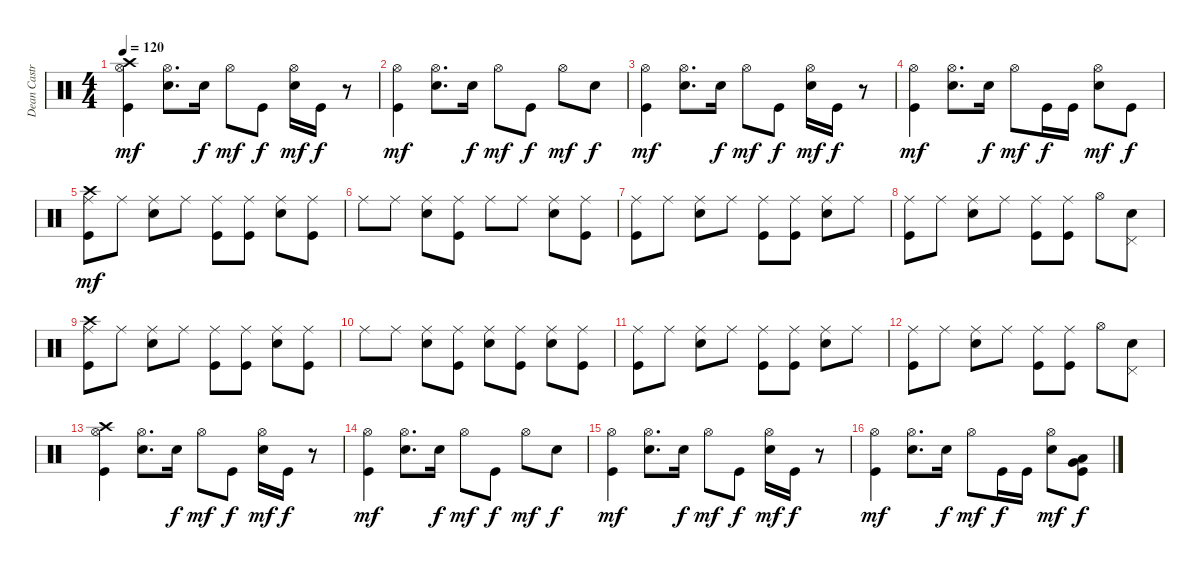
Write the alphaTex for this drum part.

\track ("Dean Castronova" "Dean Castr") {instrument percussion}
\staff {score}
\articulation defaults
\ts (4 4)
\tempo 120
\clef neutral
\ks c
("Crash high (hit)" "Hi-Hat (open)" "Kick (hit)").4{dy mf} ("Hi-Hat (open)" "Electric Snare (hit)").8{d} "Electric Snare (hit)".16{dy f} "Hi-Hat (open)".8{dy mf} "Kick (hit)".8{dy f} ("Hi-Hat (open)" "Electric Snare (hit)").16{dy mf} "Kick (hit)".16{dy f} r.8 |
("Hi-Hat (open)" "Kick (hit)").4{dy mf} ("Hi-Hat (open)" "Electric Snare (hit)").8{d} "Electric Snare (hit)".16{dy f} "Hi-Hat (open)".8{dy mf} "Kick (hit)".8{dy f} "Hi-Hat (open)".8{dy mf} "Electric Snare (hit)".8{dy f} |
("Hi-Hat (open)" "Kick (hit)").4{dy mf} ("Hi-Hat (open)" "Electric Snare (hit)").8{d} "Electric Snare (hit)".16{dy f} "Hi-Hat (open)".8{dy mf} "Kick (hit)".8{dy f} ("Hi-Hat (open)" "Electric Snare (hit)").16{dy mf} "Kick (hit)".16{dy f} r.8 |
("Hi-Hat (open)" "Kick (hit)").4{dy mf} ("Hi-Hat (open)" "Electric Snare (hit)").8{d} "Electric Snare (hit)".16{dy f} "Hi-Hat (open)".8{dy mf} "Kick (hit)".16{dy f} "Kick (hit)".16 ("Hi-Hat (open)" "Electric Snare (hit)").8{dy mf} "Kick (hit)".8{dy f} |
("Crash high (hit)" "Ride (middle)" "Kick (hit)").8{dy mf} "Ride (middle)".8 ("Ride (middle)" "Electric Snare (hit)").8 "Ride (middle)".8 ("Ride (middle)" "Kick (hit)").8 ("Ride (middle)" "Kick (hit)").8 ("Ride (middle)" "Electric Snare (hit)").8 ("Ride (middle)" "Kick (hit)").8 |
"Ride (middle)".8 "Ride (middle)".8 ("Ride (middle)" "Electric Snare (hit)").8 ("Ride (middle)" "Kick (hit)").8 "Ride (middle)".8 "Ride (middle)".8 ("Ride (middle)" "Electric Snare (hit)").8 ("Ride (middle)" "Kick (hit)").8 |
("Ride (middle)" "Kick (hit)").8 "Ride (middle)".8 ("Ride (middle)" "Electric Snare (hit)").8 "Ride (middle)".8 ("Ride (middle)" "Kick (hit)").8 ("Ride (middle)" "Kick (hit)").8 ("Ride (middle)" "Electric Snare (hit)").8 "Ride (middle)".8 |
("Ride (middle)" "Kick (hit)").8 "Ride (middle)".8 ("Ride (middle)" "Electric Snare (hit)").8 "Ride (middle)".8 ("Ride (middle)" "Kick (hit)").8 ("Ride (middle)" "Kick (hit)").8 "Hi-Hat (open)".8 ("Pedal Hi-Hat (hit)" "Electric Snare (hit)").8 |
("Crash high (hit)" "Ride (middle)" "Kick (hit)").8 "Ride (middle)".8 ("Ride (middle)" "Electric Snare (hit)").8 "Ride (middle)".8 ("Ride (middle)" "Kick (hit)").8 ("Ride (middle)" "Kick (hit)").8 ("Ride (middle)" "Electric Snare (hit)").8 ("Ride (middle)" "Kick (hit)").8 |
"Ride (middle)".8 "Ride (middle)".8 ("Ride (middle)" "Electric Snare (hit)").8 ("Ride (middle)" "Kick (hit)").8 ("Ride (middle)" "Electric Snare (hit)").8 ("Ride (middle)" "Kick (hit)").8 ("Ride (middle)" "Electric Snare (hit)").8 ("Ride (middle)" "Kick (hit)").8 |
("Ride (middle)" "Kick (hit)").8 "Ride (middle)".8 ("Ride (middle)" "Electric Snare (hit)").8 "Ride (middle)".8 ("Ride (middle)" "Kick (hit)").8 ("Ride (middle)" "Kick (hit)").8 ("Ride (middle)" "Electric Snare (hit)").8 "Ride (middle)".8 |
("Ride (middle)" "Kick (hit)").8 "Ride (middle)".8 ("Ride (middle)" "Electric Snare (hit)").8 "Ride (middle)".8 ("Ride (middle)" "Kick (hit)").8 ("Ride (middle)" "Kick (hit)").8 "Hi-Hat (open)".8 ("Pedal Hi-Hat (hit)" "Electric Snare (hit)").8 |
("Crash high (hit)" "Hi-Hat (open)" "Kick (hit)").4 ("Hi-Hat (open)" "Electric Snare (hit)").8{d} "Electric Snare (hit)".16{dy f} "Hi-Hat (open)".8{dy mf} "Kick (hit)".8{dy f} ("Hi-Hat (open)" "Electric Snare (hit)").16{dy mf} "Kick (hit)".16{dy f} r.8 |
("Hi-Hat (open)" "Kick (hit)").4{dy mf} ("Hi-Hat (open)" "Electric Snare (hit)").8{d} "Electric Snare (hit)".16{dy f} "Hi-Hat (open)".8{dy mf} "Kick (hit)".8{dy f} "Hi-Hat (open)".8{dy mf} "Electric Snare (hit)".8{dy f} |
("Hi-Hat (open)" "Kick (hit)").4{dy mf} ("Hi-Hat (open)" "Electric Snare (hit)").8{d} "Electric Snare (hit)".16{dy f} "Hi-Hat (open)".8{dy mf} "Kick (hit)".8{dy f} ("Hi-Hat (open)" "Electric Snare (hit)").16{dy mf} "Kick (hit)".16{dy f} r.8 |
("Hi-Hat (open)" "Kick (hit)").4{dy mf} ("Hi-Hat (open)" "Electric Snare (hit)").8{d} "Electric Snare (hit)".16{dy f} "Hi-Hat (open)".8{dy mf} "Kick (hit)".16{dy f} "Kick (hit)".16 ("Hi-Hat (open)" "Electric Snare (hit)").8{dy mf} ("Very Low Tom (hit)" "Low Floor Tom (hit)" "Kick (hit)").8{dy f}
